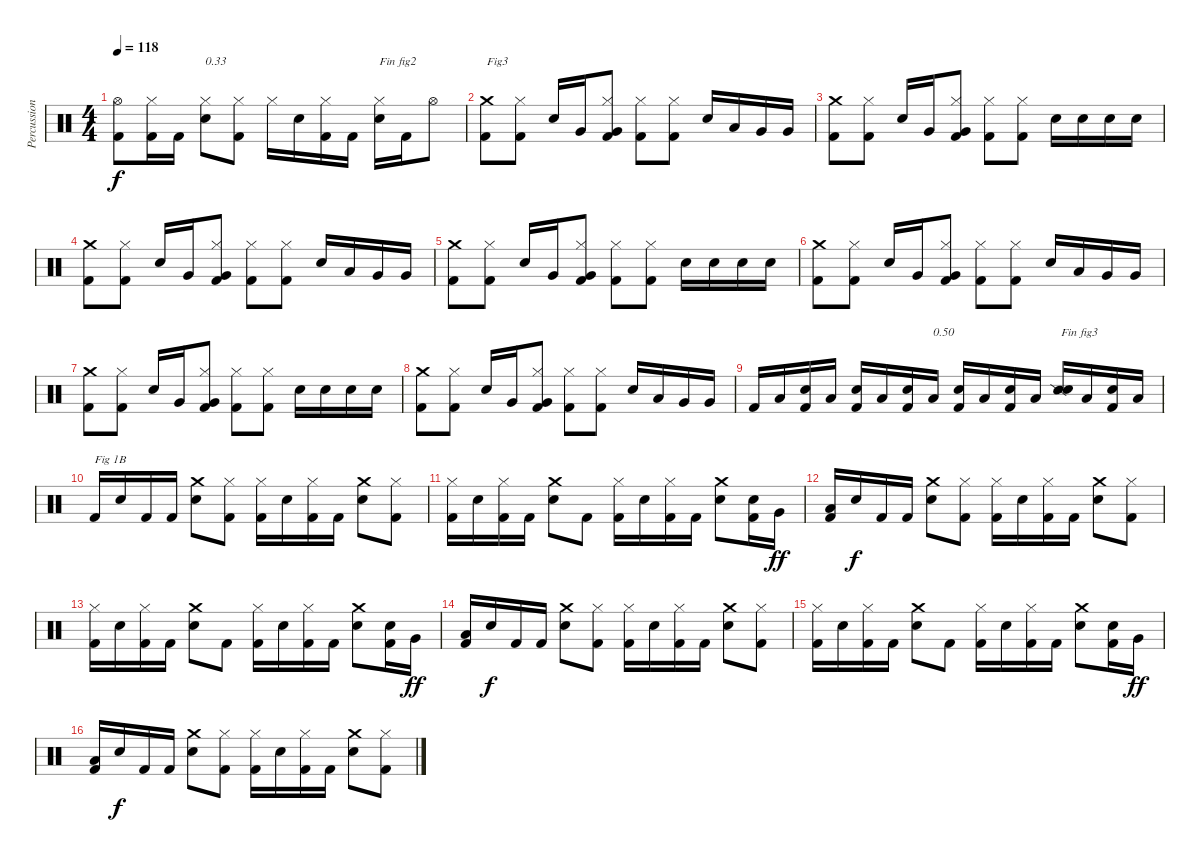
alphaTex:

\track ("Percussions" "Percussion") {instrument percussion}
\staff {score}
\articulation defaults
\ts (4 4)
\tempo 118
\clef neutral
\ks c
("Kick (hit) 2" "Hi-Hat (open)").8{dy f} ("Kick (hit) 2" "Hi-Hat (closed)").16 "Kick (hit) 2".16 ("Electric Snare (hit)" "Hi-Hat (closed)").8{txt "0.33"} ("Kick (hit) 2" "Hi-Hat (closed)").8 "Hi-Hat (closed)".16 "Electric Snare (hit)".16 ("Kick (hit) 2" "Hi-Hat (closed)").16 "Kick (hit) 2".16 ("Electric Snare (hit)" "Hi-Hat (closed)").16{txt "Fin fig2"} "Kick (hit) 2".16 "Hi-Hat (open)".8 |
("Kick (hit) 2" "Crash medium (hit)").8{txt "Fig3"} ("Kick (hit) 2" "Hi-Hat (closed)").8 "Electric Snare (hit)".16 "Very Low Tom (hit)".16 ("Kick (hit) 2" "Very Low Tom (hit)" "Hi-Hat (closed)").8 ("Kick (hit) 2" "Hi-Hat (closed)").8 ("Kick (hit) 2" "Hi-Hat (closed)").8 "Electric Snare (hit)".16 "Low Tom (hit)".16 "Very Low Tom (hit)".16 "Very Low Tom (hit)".16 |
("Kick (hit) 2" "Crash medium (hit)").8 ("Kick (hit) 2" "Hi-Hat (closed)").8 "Electric Snare (hit)".16 "Very Low Tom (hit)".16 ("Kick (hit) 2" "Very Low Tom (hit)" "Hi-Hat (closed)").8 ("Kick (hit) 2" "Hi-Hat (closed)").8 ("Kick (hit) 2" "Hi-Hat (closed)").8 "Electric Snare (hit)".16 "Electric Snare (hit)".16 "Electric Snare (hit)".16 "Electric Snare (hit)".16 |
("Kick (hit) 2" "Crash medium (hit)").8 ("Kick (hit) 2" "Hi-Hat (closed)").8 "Electric Snare (hit)".16 "Very Low Tom (hit)".16 ("Kick (hit) 2" "Very Low Tom (hit)" "Hi-Hat (closed)").8 ("Kick (hit) 2" "Hi-Hat (closed)").8 ("Kick (hit) 2" "Hi-Hat (closed)").8 "Electric Snare (hit)".16 "Low Tom (hit)".16 "Very Low Tom (hit)".16 "Very Low Tom (hit)".16 |
("Kick (hit) 2" "Crash medium (hit)").8 ("Kick (hit) 2" "Hi-Hat (closed)").8 "Electric Snare (hit)".16 "Very Low Tom (hit)".16 ("Kick (hit) 2" "Very Low Tom (hit)" "Hi-Hat (closed)").8 ("Kick (hit) 2" "Hi-Hat (closed)").8 ("Kick (hit) 2" "Hi-Hat (closed)").8 "Electric Snare (hit)".16 "Electric Snare (hit)".16 "Electric Snare (hit)".16 "Electric Snare (hit)".16 |
("Kick (hit) 2" "Crash medium (hit)").8 ("Kick (hit) 2" "Hi-Hat (closed)").8 "Electric Snare (hit)".16 "Very Low Tom (hit)".16 ("Kick (hit) 2" "Very Low Tom (hit)" "Hi-Hat (closed)").8 ("Kick (hit) 2" "Hi-Hat (closed)").8 ("Kick (hit) 2" "Hi-Hat (closed)").8 "Electric Snare (hit)".16 "Low Tom (hit)".16 "Very Low Tom (hit)".16 "Very Low Tom (hit)".16 |
("Kick (hit) 2" "Crash medium (hit)").8 ("Kick (hit) 2" "Hi-Hat (closed)").8 "Electric Snare (hit)".16 "Very Low Tom (hit)".16 ("Kick (hit) 2" "Very Low Tom (hit)" "Hi-Hat (closed)").8 ("Kick (hit) 2" "Hi-Hat (closed)").8 ("Kick (hit) 2" "Hi-Hat (closed)").8 "Electric Snare (hit)".16 "Electric Snare (hit)".16 "Electric Snare (hit)".16 "Electric Snare (hit)".16 |
("Kick (hit) 2" "Crash medium (hit)").8 ("Kick (hit) 2" "Hi-Hat (closed)").8 "Electric Snare (hit)".16 "Very Low Tom (hit)".16 ("Kick (hit) 2" "Very Low Tom (hit)" "Hi-Hat (closed)").8 ("Kick (hit) 2" "Hi-Hat (closed)").8 ("Kick (hit) 2" "Hi-Hat (closed)").8 "Electric Snare (hit)".16 "Low Tom (hit)".16 "Very Low Tom (hit)".16 "Very Low Tom (hit)".16 |
"Kick (hit) 2".16 "Low Floor Tom (hit)".16 ("Kick (hit) 2" "Electric Snare (hit)").16 "Low Floor Tom (hit)".16 ("Kick (hit) 2" "Electric Snare (hit)").16 "Low Floor Tom (hit)".16 ("Kick (hit) 2" "Electric Snare (hit)").16 "Low Floor Tom (hit)".16{txt "0.50"} ("Kick (hit) 2" "Electric Snare (hit)").16 "Low Floor Tom (hit)".16 ("Kick (hit) 2" "Electric Snare (hit)").16 "Low Floor Tom (hit)".16 ("Snare (side stick) 2" "Electric Snare (hit)").16{txt "Fin fig3"} "Low Floor Tom (hit)".16 ("Kick (hit) 2" "Electric Snare (hit)").16 "Low Floor Tom (hit)".16 |
"Kick (hit) 2".16{txt "Fig 1B"} "Electric Snare (hit)".16 "Kick (hit) 2".16 "Kick (hit) 2".16 ("Electric Snare (hit)" "Crash medium (hit)").8 ("Kick (hit) 2" "Hi-Hat (closed)").8 ("Kick (hit) 2" "Hi-Hat (closed)").16 "Electric Snare (hit)".16 ("Kick (hit) 2" "Hi-Hat (closed)").16 "Kick (hit) 2".16 ("Electric Snare (hit)" "Crash medium (hit)").8 ("Kick (hit) 2" "Hi-Hat (closed)").8 |
("Kick (hit) 2" "Hi-Hat (closed)").16 "Electric Snare (hit)".16 ("Kick (hit) 2" "Hi-Hat (closed)").16 "Kick (hit) 2".16 ("Electric Snare (hit)" "Crash medium (hit)").8 "Kick (hit) 2".8 ("Kick (hit) 2" "Hi-Hat (closed)").16 "Electric Snare (hit)".16 ("Kick (hit) 2" "Hi-Hat (closed)").16 "Kick (hit) 2".16 ("Electric Snare (hit)" "Crash medium (hit)").8 ("Kick (hit) 2" "Electric Snare (hit)").16 "Very Low Tom (hit)".16{dy ff} |
("Kick (hit) 2" "Low Floor Tom (hit)").16 "Electric Snare (hit)".16{dy f} "Kick (hit) 2".16 "Kick (hit) 2".16 ("Electric Snare (hit)" "Crash medium (hit)").8 ("Kick (hit) 2" "Hi-Hat (closed)").8 ("Kick (hit) 2" "Hi-Hat (closed)").16 "Electric Snare (hit)".16 ("Kick (hit) 2" "Hi-Hat (closed)").16 "Kick (hit) 2".16 ("Electric Snare (hit)" "Crash medium (hit)").8 ("Kick (hit) 2" "Hi-Hat (closed)").8 |
("Kick (hit) 2" "Hi-Hat (closed)").16 "Electric Snare (hit)".16 ("Kick (hit) 2" "Hi-Hat (closed)").16 "Kick (hit) 2".16 ("Electric Snare (hit)" "Crash medium (hit)").8 "Kick (hit) 2".8 ("Kick (hit) 2" "Hi-Hat (closed)").16 "Electric Snare (hit)".16 ("Kick (hit) 2" "Hi-Hat (closed)").16 "Kick (hit) 2".16 ("Electric Snare (hit)" "Crash medium (hit)").8 ("Kick (hit) 2" "Electric Snare (hit)").16 "Very Low Tom (hit)".16{dy ff} |
("Kick (hit) 2" "Low Floor Tom (hit)").16 "Electric Snare (hit)".16{dy f} "Kick (hit) 2".16 "Kick (hit) 2".16 ("Electric Snare (hit)" "Crash medium (hit)").8 ("Kick (hit) 2" "Hi-Hat (closed)").8 ("Kick (hit) 2" "Hi-Hat (closed)").16 "Electric Snare (hit)".16 ("Kick (hit) 2" "Hi-Hat (closed)").16 "Kick (hit) 2".16 ("Electric Snare (hit)" "Crash medium (hit)").8 ("Kick (hit) 2" "Hi-Hat (closed)").8 |
("Kick (hit) 2" "Hi-Hat (closed)").16 "Electric Snare (hit)".16 ("Kick (hit) 2" "Hi-Hat (closed)").16 "Kick (hit) 2".16 ("Electric Snare (hit)" "Crash medium (hit)").8 "Kick (hit) 2".8 ("Kick (hit) 2" "Hi-Hat (closed)").16 "Electric Snare (hit)".16 ("Kick (hit) 2" "Hi-Hat (closed)").16 "Kick (hit) 2".16 ("Electric Snare (hit)" "Crash medium (hit)").8 ("Kick (hit) 2" "Electric Snare (hit)").16 "Very Low Tom (hit)".16{dy ff} |
("Kick (hit) 2" "Low Floor Tom (hit)").16 "Electric Snare (hit)".16{dy f} "Kick (hit) 2".16 "Kick (hit) 2".16 ("Electric Snare (hit)" "Crash medium (hit)").8 ("Kick (hit) 2" "Hi-Hat (closed)").8 ("Kick (hit) 2" "Hi-Hat (closed)").16 "Electric Snare (hit)".16 ("Kick (hit) 2" "Hi-Hat (closed)").16 "Kick (hit) 2".16 ("Electric Snare (hit)" "Crash medium (hit)").8 ("Kick (hit) 2" "Hi-Hat (closed)").8
